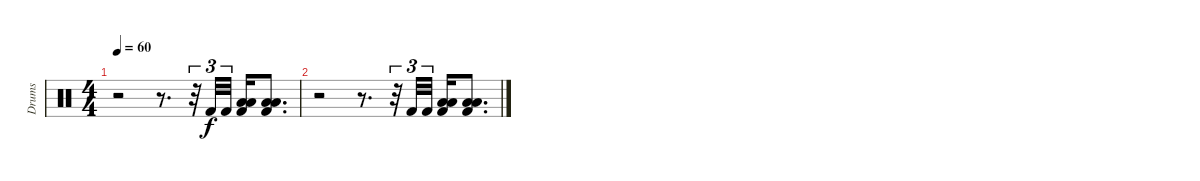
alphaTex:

\track ("Drums" "Drums") {instrument percussion}
\staff {score}
\articulation defaults
\ts (4 4)
\tempo 60
\clef neutral
\ks c
r.2{dy f} r.8{d} r.32{tu (3 2)} "Kick (hit) 2".32{tu (3 2)} "Kick (hit) 2".32{tu (3 2)} ("Low Tom (hit)" "Low Floor Tom (hit)" "Kick (hit) 2").16 ("Low Tom (hit)" "Low Floor Tom (hit)" "Kick (hit) 2").8{d} |
r.2 r.8{d} r.32{tu (3 2)} "Kick (hit) 2".32{tu (3 2)} "Kick (hit) 2".32{tu (3 2)} ("Low Tom (hit)" "Low Floor Tom (hit)" "Kick (hit) 2").16 ("Low Tom (hit)" "Low Floor Tom (hit)" "Kick (hit) 2").8{d}
